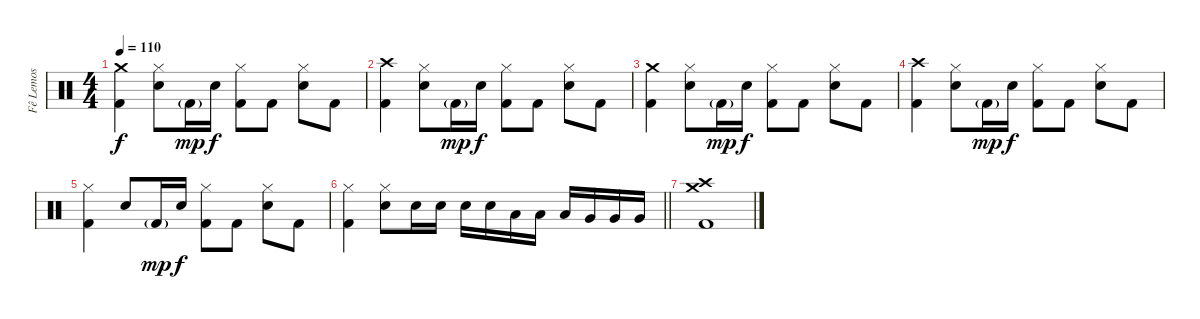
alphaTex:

\track ("Fê Lemos" "Fê Lemos") {instrument percussion}
\staff {score}
\articulation defaults
\ts (4 4)
\tempo 110
\clef neutral
\ks c
("Crash medium (hit)" "Kick (hit) 2").4{dy f} ("Hi-Hat (closed)" "Electric Snare (hit)").8 "Kick (hit) 2"{g}.16{dy mp} "Electric Snare (hit)".16{dy f} ("Hi-Hat (closed)" "Kick (hit) 2").8 "Kick (hit) 2".8 ("Hi-Hat (closed)" "Electric Snare (hit)").8 "Kick (hit) 2".8 |
("Crash high (hit)" "Kick (hit) 2").4 ("Hi-Hat (closed)" "Electric Snare (hit)").8 "Kick (hit) 2"{g}.16{dy mp} "Electric Snare (hit)".16{dy f} ("Hi-Hat (closed)" "Kick (hit) 2").8 "Kick (hit) 2".8 ("Hi-Hat (closed)" "Electric Snare (hit)").8 "Kick (hit) 2".8 |
("Crash medium (hit)" "Kick (hit) 2").4 ("Hi-Hat (closed)" "Electric Snare (hit)").8 "Kick (hit) 2"{g}.16{dy mp} "Electric Snare (hit)".16{dy f} ("Hi-Hat (closed)" "Kick (hit) 2").8 "Kick (hit) 2".8 ("Hi-Hat (closed)" "Electric Snare (hit)").8 "Kick (hit) 2".8 |
("Crash high (hit)" "Kick (hit) 2").4 ("Hi-Hat (closed)" "Electric Snare (hit)").8 "Kick (hit) 2"{g}.16{dy mp} "Electric Snare (hit)".16{dy f} ("Hi-Hat (closed)" "Kick (hit) 2").8 "Kick (hit) 2".8 ("Hi-Hat (closed)" "Electric Snare (hit)").8 "Kick (hit) 2".8 |
("Hi-Hat (closed)" "Kick (hit) 2").4 "Electric Snare (hit)".8 "Kick (hit) 2"{g}.16{dy mp} "Electric Snare (hit)".16{dy f} ("Hi-Hat (closed)" "Kick (hit) 2").8 "Kick (hit) 2".8 ("Hi-Hat (closed)" "Electric Snare (hit)").8 "Kick (hit) 2".8 |
\barLineRight lightlight
("Hi-Hat (closed)" "Kick (hit) 2").4 ("Hi-Hat (closed)" "Electric Snare (hit)").8 "Electric Snare (hit)".16 "Electric Snare (hit)".16 "Electric Snare (hit)".16 "Electric Snare (hit)".16 "Low Tom (hit)".16 "Low Tom (hit)".16 "Low Tom (hit)".16 "Very Low Tom (hit)".16 "Very Low Tom (hit)".16 "Very Low Tom (hit)".16 |
("Crash high (hit)" "Crash medium (hit)" "Kick (hit) 2").1
